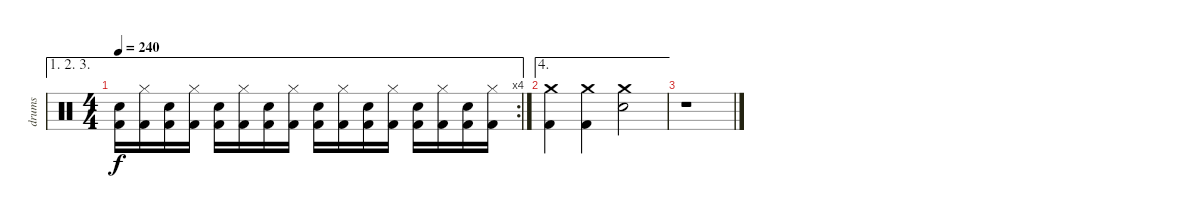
\track ("drums" "drums") {instrument percussion}
\staff {score}
\articulation defaults
\ae (1 2 3)
\rc 4
\ts (4 4)
\tempo 240
\clef neutral
\ks c
("Snare (hit) 2" "Kick (hit) 2").16{dy f} ("Hi-Hat (closed)" "Kick (hit) 2").16 ("Snare (hit) 2" "Kick (hit) 2").16 ("Hi-Hat (closed)" "Kick (hit) 2").16 ("Snare (hit) 2" "Kick (hit) 2").16 ("Hi-Hat (closed)" "Kick (hit) 2").16 ("Snare (hit) 2" "Kick (hit) 2").16 ("Hi-Hat (closed)" "Kick (hit) 2").16 ("Snare (hit) 2" "Kick (hit) 2").16 ("Hi-Hat (closed)" "Kick (hit) 2").16 ("Snare (hit) 2" "Kick (hit) 2").16 ("Hi-Hat (closed)" "Kick (hit) 2").16 ("Snare (hit) 2" "Kick (hit) 2").16 ("Hi-Hat (closed)" "Kick (hit) 2").16 ("Snare (hit) 2" "Kick (hit) 2").16 ("Hi-Hat (closed)" "Kick (hit) 2").16 |
\ae 4
("Crash medium (hit)" "Kick (hit) 2").4 ("Crash medium (hit)" "Kick (hit) 2").4 ("Crash medium (hit)" "Snare (hit) 2").2 |
r.1
